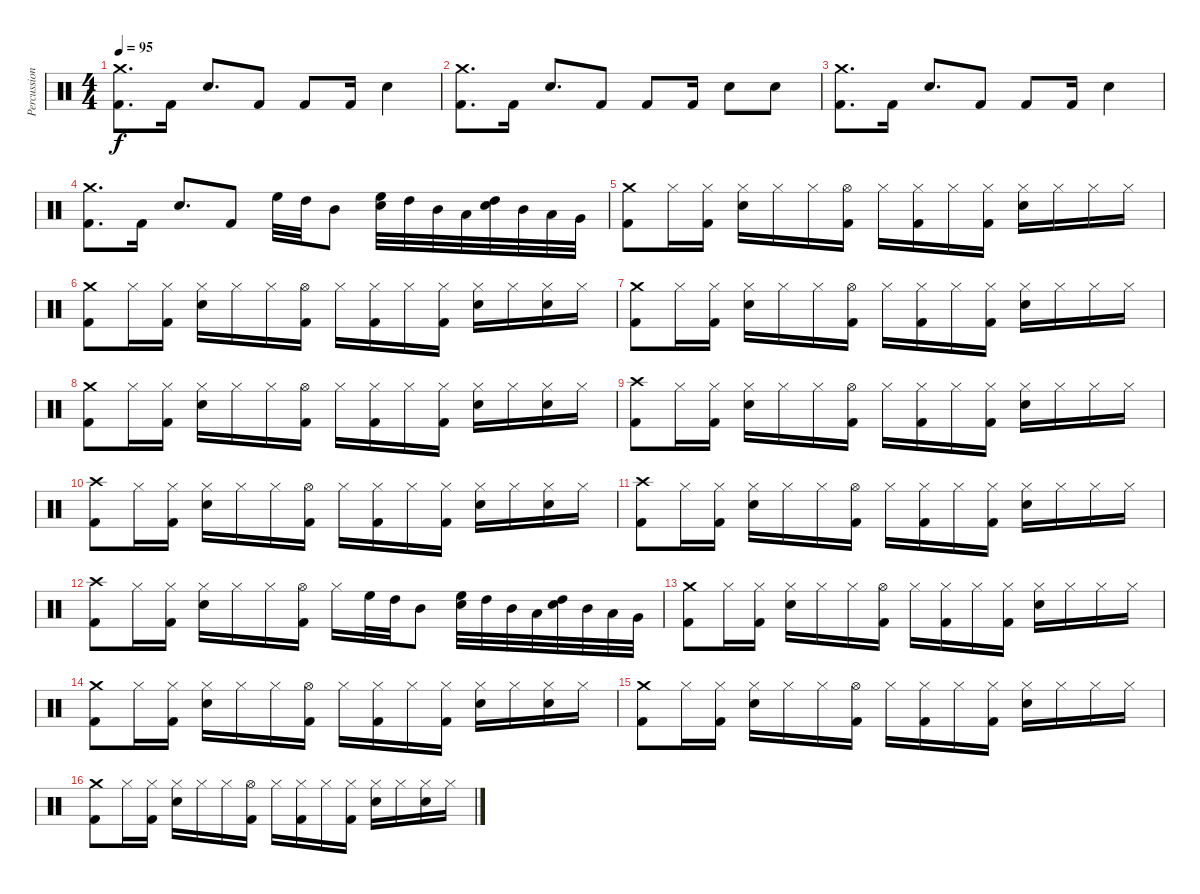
\track ("Percussion" "Percussion") {instrument percussion}
\staff {score}
\articulation defaults
\ts (4 4)
\tempo 95
\clef neutral
\ks c
("Crash medium (hit)" "Kick (hit) 2").8{d dy f} "Kick (hit) 2".16 "Electric Snare (hit)".8{d} "Kick (hit) 2".8 "Kick (hit) 2".8 "Kick (hit) 2".16 "Electric Snare (hit)".4 |
("Crash medium (hit)" "Kick (hit) 2").8{d} "Kick (hit) 2".16 "Electric Snare (hit)".8{d} "Kick (hit) 2".8 "Kick (hit) 2".8 "Kick (hit) 2".16 "Electric Snare (hit)".8 "Electric Snare (hit)".8 |
("Crash medium (hit)" "Kick (hit) 2").8{d} "Kick (hit) 2".16 "Electric Snare (hit)".8{d} "Kick (hit) 2".8 "Kick (hit) 2".8 "Kick (hit) 2".16 "Electric Snare (hit)".4 |
("Crash medium (hit)" "Kick (hit) 2").8{d} "Kick (hit) 2".16 "Electric Snare (hit)".8{d} "Kick (hit) 2".8 "High Floor Tom (hit)".32 "High Tom (hit)".32 "Mid Tom (hit)".8 ("Electric Snare (hit)" "High Floor Tom (hit)").32 "High Tom (hit)".32 "Mid Tom (hit)".32 "Low Tom (hit)".32 ("Electric Snare (hit)" "High Tom (hit)").32 "Mid Tom (hit)".32 "Low Tom (hit)".32 "Very Low Tom (hit)".32 |
("Crash medium (hit)" "Kick (hit) 2").8 "Hi-Hat (closed)".16 ("Hi-Hat (closed)" "Kick (hit) 2").16 ("Hi-Hat (closed)" "Electric Snare (hit)").16 "Hi-Hat (closed)".16 "Hi-Hat (closed)".16 ("Hi-Hat (open)" "Kick (hit) 2").16 "Hi-Hat (closed)".16 ("Hi-Hat (closed)" "Kick (hit) 2").16 "Hi-Hat (closed)".16 ("Hi-Hat (closed)" "Kick (hit) 2").16 ("Hi-Hat (closed)" "Electric Snare (hit)").16 "Hi-Hat (closed)".16 "Hi-Hat (closed)".16 "Hi-Hat (closed)".16 |
("Crash medium (hit)" "Kick (hit) 2").8 "Hi-Hat (closed)".16 ("Hi-Hat (closed)" "Kick (hit) 2").16 ("Hi-Hat (closed)" "Electric Snare (hit)").16 "Hi-Hat (closed)".16 "Hi-Hat (closed)".16 ("Hi-Hat (open)" "Kick (hit) 2").16 "Hi-Hat (closed)".16 ("Hi-Hat (closed)" "Kick (hit) 2").16 "Hi-Hat (closed)".16 ("Hi-Hat (closed)" "Kick (hit) 2").16 ("Hi-Hat (closed)" "Electric Snare (hit)").16 "Hi-Hat (closed)".16 ("Hi-Hat (closed)" "Electric Snare (hit)").16 "Hi-Hat (closed)".16 |
("Crash medium (hit)" "Kick (hit) 2").8 "Hi-Hat (closed)".16 ("Hi-Hat (closed)" "Kick (hit) 2").16 ("Hi-Hat (closed)" "Electric Snare (hit)").16 "Hi-Hat (closed)".16 "Hi-Hat (closed)".16 ("Hi-Hat (open)" "Kick (hit) 2").16 "Hi-Hat (closed)".16 ("Hi-Hat (closed)" "Kick (hit) 2").16 "Hi-Hat (closed)".16 ("Hi-Hat (closed)" "Kick (hit) 2").16 ("Hi-Hat (closed)" "Electric Snare (hit)").16 "Hi-Hat (closed)".16 "Hi-Hat (closed)".16 "Hi-Hat (closed)".16 |
("Crash medium (hit)" "Kick (hit) 2").8 "Hi-Hat (closed)".16 ("Hi-Hat (closed)" "Kick (hit) 2").16 ("Hi-Hat (closed)" "Electric Snare (hit)").16 "Hi-Hat (closed)".16 "Hi-Hat (closed)".16 ("Hi-Hat (open)" "Kick (hit) 2").16 "Hi-Hat (closed)".16 ("Hi-Hat (closed)" "Kick (hit) 2").16 "Hi-Hat (closed)".16 ("Hi-Hat (closed)" "Kick (hit) 2").16 ("Hi-Hat (closed)" "Electric Snare (hit)").16 "Hi-Hat (closed)".16 ("Hi-Hat (closed)" "Electric Snare (hit)").16 "Hi-Hat (closed)".16 |
("Crash high (hit)" "Kick (hit) 2").8 "Hi-Hat (closed)".16 ("Hi-Hat (closed)" "Kick (hit) 2").16 ("Hi-Hat (closed)" "Electric Snare (hit)").16 "Hi-Hat (closed)".16 "Hi-Hat (closed)".16 ("Hi-Hat (open)" "Kick (hit) 2").16 "Hi-Hat (closed)".16 ("Hi-Hat (closed)" "Kick (hit) 2").16 "Hi-Hat (closed)".16 ("Hi-Hat (closed)" "Kick (hit) 2").16 ("Hi-Hat (closed)" "Electric Snare (hit)").16 "Hi-Hat (closed)".16 "Hi-Hat (closed)".16 "Hi-Hat (closed)".16 |
("Crash high (hit)" "Kick (hit) 2").8 "Hi-Hat (closed)".16 ("Hi-Hat (closed)" "Kick (hit) 2").16 ("Hi-Hat (closed)" "Electric Snare (hit)").16 "Hi-Hat (closed)".16 "Hi-Hat (closed)".16 ("Hi-Hat (open)" "Kick (hit) 2").16 "Hi-Hat (closed)".16 ("Hi-Hat (closed)" "Kick (hit) 2").16 "Hi-Hat (closed)".16 ("Hi-Hat (closed)" "Kick (hit) 2").16 ("Hi-Hat (closed)" "Electric Snare (hit)").16 "Hi-Hat (closed)".16 ("Hi-Hat (closed)" "Electric Snare (hit)").16 "Hi-Hat (closed)".16 |
("Crash high (hit)" "Kick (hit) 2").8 "Hi-Hat (closed)".16 ("Hi-Hat (closed)" "Kick (hit) 2").16 ("Hi-Hat (closed)" "Electric Snare (hit)").16 "Hi-Hat (closed)".16 "Hi-Hat (closed)".16 ("Hi-Hat (open)" "Kick (hit) 2").16 "Hi-Hat (closed)".16 ("Hi-Hat (closed)" "Kick (hit) 2").16 "Hi-Hat (closed)".16 ("Hi-Hat (closed)" "Kick (hit) 2").16 ("Hi-Hat (closed)" "Electric Snare (hit)").16 "Hi-Hat (closed)".16 "Hi-Hat (closed)".16 "Hi-Hat (closed)".16 |
("Crash high (hit)" "Kick (hit) 2").8 "Hi-Hat (closed)".16 ("Hi-Hat (closed)" "Kick (hit) 2").16 ("Hi-Hat (closed)" "Electric Snare (hit)").16 "Hi-Hat (closed)".16 "Hi-Hat (closed)".16 ("Hi-Hat (open)" "Kick (hit) 2").16 "Hi-Hat (closed)".16 "High Floor Tom (hit)".32 "High Tom (hit)".32 "Mid Tom (hit)".8 ("Electric Snare (hit)" "High Floor Tom (hit)").32 "High Tom (hit)".32 "Mid Tom (hit)".32 "Low Tom (hit)".32 ("Electric Snare (hit)" "High Tom (hit)").32 "Mid Tom (hit)".32 "Low Tom (hit)".32 "Very Low Tom (hit)".32 |
("Crash medium (hit)" "Kick (hit) 2").8 "Hi-Hat (closed)".16 ("Hi-Hat (closed)" "Kick (hit) 2").16 ("Hi-Hat (closed)" "Electric Snare (hit)").16 "Hi-Hat (closed)".16 "Hi-Hat (closed)".16 ("Hi-Hat (open)" "Kick (hit) 2").16 "Hi-Hat (closed)".16 ("Hi-Hat (closed)" "Kick (hit) 2").16 "Hi-Hat (closed)".16 ("Hi-Hat (closed)" "Kick (hit) 2").16 ("Hi-Hat (closed)" "Electric Snare (hit)").16 "Hi-Hat (closed)".16 "Hi-Hat (closed)".16 "Hi-Hat (closed)".16 |
("Crash medium (hit)" "Kick (hit) 2").8 "Hi-Hat (closed)".16 ("Hi-Hat (closed)" "Kick (hit) 2").16 ("Hi-Hat (closed)" "Electric Snare (hit)").16 "Hi-Hat (closed)".16 "Hi-Hat (closed)".16 ("Hi-Hat (open)" "Kick (hit) 2").16 "Hi-Hat (closed)".16 ("Hi-Hat (closed)" "Kick (hit) 2").16 "Hi-Hat (closed)".16 ("Hi-Hat (closed)" "Kick (hit) 2").16 ("Hi-Hat (closed)" "Electric Snare (hit)").16 "Hi-Hat (closed)".16 ("Hi-Hat (closed)" "Electric Snare (hit)").16 "Hi-Hat (closed)".16 |
("Crash medium (hit)" "Kick (hit) 2").8 "Hi-Hat (closed)".16 ("Hi-Hat (closed)" "Kick (hit) 2").16 ("Hi-Hat (closed)" "Electric Snare (hit)").16 "Hi-Hat (closed)".16 "Hi-Hat (closed)".16 ("Hi-Hat (open)" "Kick (hit) 2").16 "Hi-Hat (closed)".16 ("Hi-Hat (closed)" "Kick (hit) 2").16 "Hi-Hat (closed)".16 ("Hi-Hat (closed)" "Kick (hit) 2").16 ("Hi-Hat (closed)" "Electric Snare (hit)").16 "Hi-Hat (closed)".16 "Hi-Hat (closed)".16 "Hi-Hat (closed)".16 |
("Crash medium (hit)" "Kick (hit) 2").8 "Hi-Hat (closed)".16 ("Hi-Hat (closed)" "Kick (hit) 2").16 ("Hi-Hat (closed)" "Electric Snare (hit)").16 "Hi-Hat (closed)".16 "Hi-Hat (closed)".16 ("Hi-Hat (open)" "Kick (hit) 2").16 "Hi-Hat (closed)".16 ("Hi-Hat (closed)" "Kick (hit) 2").16 "Hi-Hat (closed)".16 ("Hi-Hat (closed)" "Kick (hit) 2").16 ("Hi-Hat (closed)" "Electric Snare (hit)").16 "Hi-Hat (closed)".16 ("Hi-Hat (closed)" "Electric Snare (hit)").16 "Hi-Hat (closed)".16
